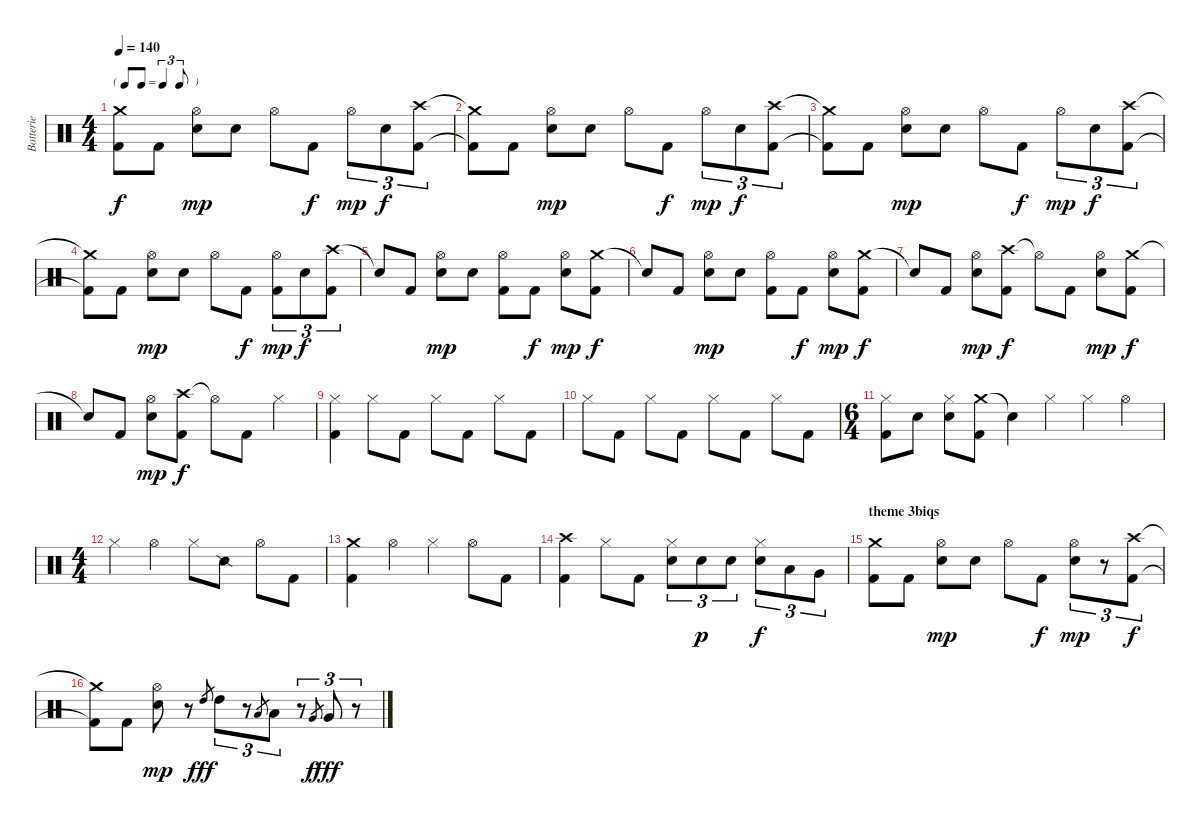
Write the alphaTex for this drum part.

\track ("Batterie" "Batterie") {instrument percussion}
\staff {score}
\articulation defaults
\ts (4 4)
\tf triplet8th
\tempo 140
\clef neutral
\ks c
("Crash medium (hit)" "Kick (hit) 2").8{dy f} "Kick (hit) 2".8 ("Hi-Hat (open)" "Electric Snare (hit)").8{dy mp} "Electric Snare (hit)".8 "Hi-Hat (open)".8 "Kick (hit) 2".8{dy f} "Hi-Hat (open)".8{tu (3 2) dy mp} "Electric Snare (hit)".8{tu (3 2) dy f} ("Crash high (hit)" "Kick (hit) 2").8{tu (3 2)} |
("Crash medium (hit)"{t} "Kick (hit) 2"{t}).8 "Kick (hit) 2".8 ("Hi-Hat (open)" "Electric Snare (hit)").8{dy mp} "Electric Snare (hit)".8 "Hi-Hat (open)".8 "Kick (hit) 2".8{dy f} "Hi-Hat (open)".8{tu (3 2) dy mp} "Electric Snare (hit)".8{tu (3 2) dy f} ("Crash high (hit)" "Kick (hit) 2").8{tu (3 2)} |
("Crash medium (hit)"{t} "Kick (hit) 2"{t}).8 "Kick (hit) 2".8 ("Hi-Hat (open)" "Electric Snare (hit)").8{dy mp} "Electric Snare (hit)".8 "Hi-Hat (open)".8 "Kick (hit) 2".8{dy f} "Hi-Hat (open)".8{tu (3 2) dy mp} "Electric Snare (hit)".8{tu (3 2) dy f} ("Crash high (hit)" "Kick (hit) 2").8{tu (3 2)} |
("Crash medium (hit)"{t} "Kick (hit) 2"{t}).8 "Kick (hit) 2".8 ("Hi-Hat (open)" "Electric Snare (hit)").8{dy mp} "Electric Snare (hit)".8 "Hi-Hat (open)".8 "Kick (hit) 2".8{dy f} ("Hi-Hat (open)" "Kick (hit) 2").8{tu (3 2) dy mp} "Electric Snare (hit)".8{tu (3 2) dy f} ("Crash high (hit)" "Kick (hit) 2").8{tu (3 2)} |
"Snare (hit)"{t}.8 "Kick (hit) 2".8 ("Hi-Hat (open)" "Electric Snare (hit)").8{dy mp} "Electric Snare (hit)".8 ("Hi-Hat (open)" "Kick (hit) 2").8 "Kick (hit) 2".8{dy f} ("Hi-Hat (open)" "Electric Snare (hit)").8{dy mp} ("Crash medium (hit)" "Kick (hit) 2").8{dy f} |
"Snare (hit)"{t}.8 "Kick (hit) 2".8 ("Hi-Hat (open)" "Electric Snare (hit)").8{dy mp} "Electric Snare (hit)".8 ("Hi-Hat (open)" "Kick (hit) 2").8 "Kick (hit) 2".8{dy f} ("Hi-Hat (open)" "Electric Snare (hit)").8{dy mp} ("Crash medium (hit)" "Kick (hit) 2").8{dy f} |
"Snare (hit)"{t}.8 "Kick (hit) 2".8 ("Hi-Hat (open)" "Electric Snare (hit)").8{dy mp} ("Crash high (hit)" "Kick (hit) 2").8{dy f} "Hi-Hat (open)"{t}.8 "Kick (hit) 2".8 ("Hi-Hat (open)" "Electric Snare (hit)").8{dy mp} ("Crash medium (hit)" "Kick (hit) 2").8{dy f} |
"Snare (hit)"{t}.8 "Kick (hit) 2".8 ("Hi-Hat (open)" "Electric Snare (hit)").8{dy mp} ("Crash high (hit)" "Kick (hit) 2").8{dy f} "Hi-Hat (open)"{t}.8 "Kick (hit) 2".8 "Hi-Hat (closed)".4 |
("Hi-Hat (closed)" "Kick (hit) 2").4 "Hi-Hat (closed)".8 "Kick (hit) 2".8 "Hi-Hat (closed)".8 "Kick (hit) 2".8 "Hi-Hat (closed)".8 "Kick (hit) 2".8 |
"Hi-Hat (closed)".8 "Kick (hit) 2".8 "Hi-Hat (closed)".8 "Kick (hit) 2".8 "Hi-Hat (closed)".8 "Kick (hit) 2".8 "Hi-Hat (closed)".8 "Kick (hit) 2".8 |
\ts (6 4)
("Hi-Hat (closed)" "Kick (hit) 2").8 "Electric Snare (hit)".8 ("Hi-Hat (closed)" "Electric Snare (hit)").8 ("Crash medium (hit)" "Kick (hit) 2").8 "Snare (hit)"{t}.4 "Hi-Hat (closed)".4 "Hi-Hat (closed)".4 "Hi-Hat (open)".4 |
\ts (4 4)
"Hi-Hat (closed)".4 "Hi-Hat (open)".4 "Hi-Hat (closed)".8 "Snare (side stick) 2".8 "Hi-Hat (open)".8 "Kick (hit) 2".8 |
("Crash medium (hit)" "Kick (hit) 2").4 "Hi-Hat (open)".4 "Hi-Hat (closed)".4 "Hi-Hat (open)".8 "Kick (hit) 2".8 |
("Crash high (hit)" "Kick (hit) 2").4 "Hi-Hat (closed)".8 "Kick (hit) 2".8 ("Hi-Hat (closed)" "Electric Snare (hit)").8{tu (3 2)} "Electric Snare (hit)".8{tu (3 2) dy p} "Electric Snare (hit)".8{tu (3 2)} ("Hi-Hat (closed)" "Electric Snare (hit)").8{tu (3 2) dy f} "Low Tom (hit)".8{tu (3 2)} "Very Low Tom (hit)".8{tu (3 2)} |
\section ("" "theme 3biqs")
("Crash medium (hit)" "Kick (hit) 2").8 "Kick (hit) 2".8 ("Hi-Hat (open)" "Electric Snare (hit)").8{dy mp} "Electric Snare (hit)".8 "Hi-Hat (open)".8 "Kick (hit) 2".8{dy f} ("Hi-Hat (open)" "Electric Snare (hit)").8{tu (3 2) dy mp} r.8{tu (3 2)} ("Crash high (hit)" "Kick (hit) 2").8{tu (3 2) dy f} |
("Crash medium (hit)"{t} "Kick (hit) 2"{t}).8 "Kick (hit) 2".8 ("Hi-Hat (open)" "Electric Snare (hit)").8{dy mp} r.8 "High Tom (hit)".8{gr dy fff} "High Tom (hit)".8{tu (3 2)} r.8{tu (3 2)} "Low Tom (hit)".8{gr} "Low Tom (hit)".8{tu (3 2)} r.8{tu (3 2)} "Very Low Tom (hit)".8{gr dy f} "Very Low Tom (hit)".8{tu (3 2) dy fff} r.8{tu (3 2)}
